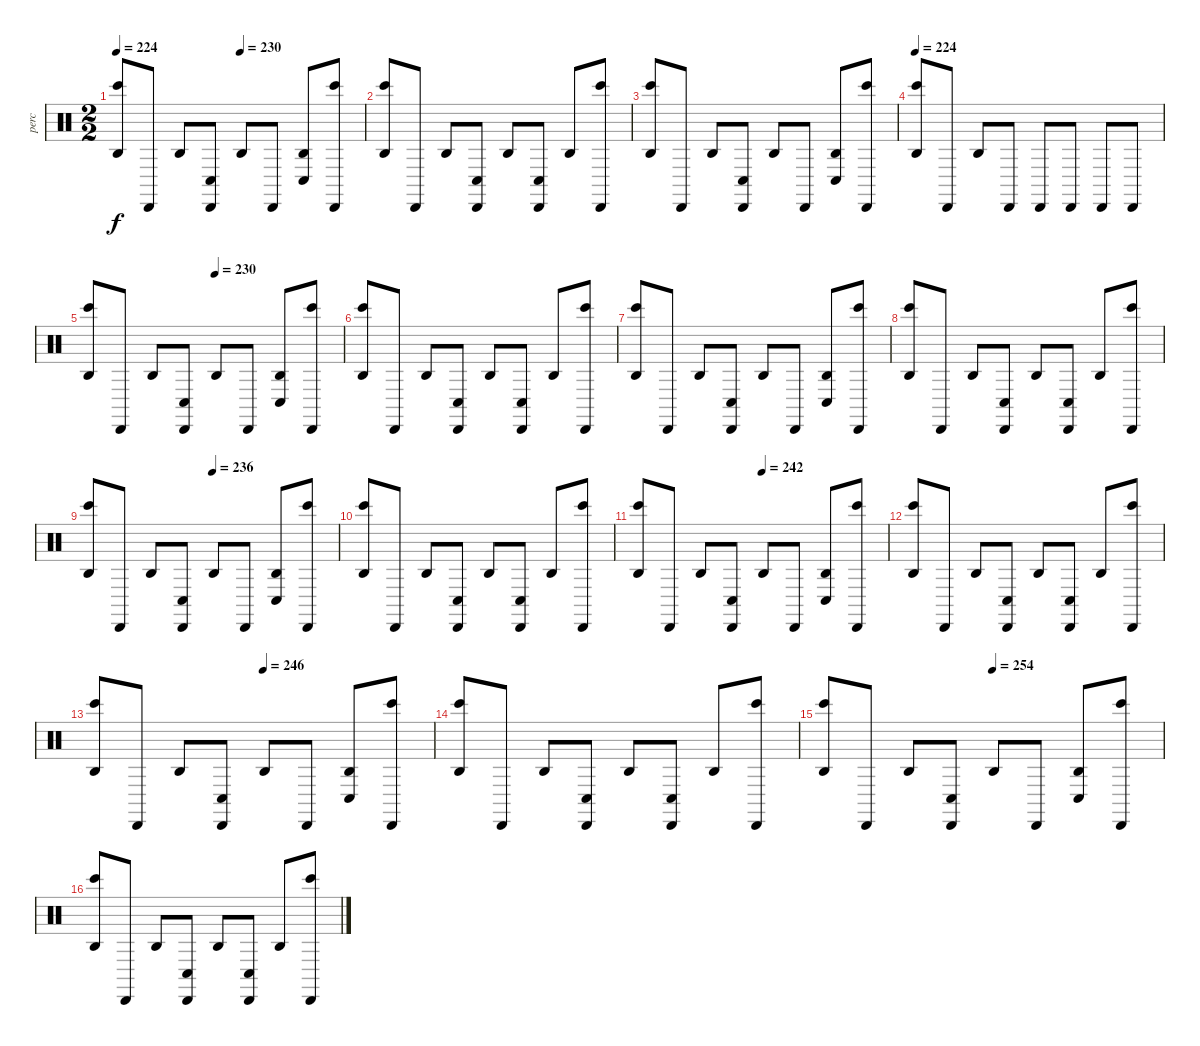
\track ("perc" "perc") {instrument percussion}
\staff {score}
\articulation defaults
\ts (2 2)
\tempo 224
\tempo (230 0.5)
\clef neutral
\ks c
("Bongo High (hit)" "Agogo high (hit)").8{dy f} "Cabasa (hit)".8 "Agogo high (hit)".8 ("Conga low (hit)" "Cabasa (hit)").8 "Agogo high (hit)".8 "Cabasa (hit)".8 ("Conga low (hit)" "Agogo high (hit)").8 ("Bongo High (hit)" "Cabasa (hit)").8 |
("Bongo High (hit)" "Agogo high (hit)").8 "Cabasa (hit)".8 "Agogo high (hit)".8 ("Conga low (hit)" "Cabasa (hit)").8 "Agogo high (hit)".8 ("Conga low (hit)" "Cabasa (hit)").8 "Agogo high (hit)".8 ("Bongo High (hit)" "Cabasa (hit)").8 |
("Bongo High (hit)" "Agogo high (hit)").8 "Cabasa (hit)".8 "Agogo high (hit)".8 ("Conga low (hit)" "Cabasa (hit)").8 "Agogo high (hit)".8 "Cabasa (hit)".8 ("Conga low (hit)" "Agogo high (hit)").8 ("Bongo High (hit)" "Cabasa (hit)").8 |
\tempo 224
("Bongo High (hit)" "Agogo high (hit)").8 "Cabasa (hit)".8 "Agogo high (hit)".8 "Cabasa (hit)".8 "Cabasa (hit)".8 "Cabasa (hit)".8 "Cabasa (hit)".8 "Cabasa (hit)".8 |
\tempo (230 0.5)
("Bongo High (hit)" "Agogo high (hit)").8 "Cabasa (hit)".8 "Agogo high (hit)".8 ("Conga low (hit)" "Cabasa (hit)").8 "Agogo high (hit)".8 "Cabasa (hit)".8 ("Conga low (hit)" "Agogo high (hit)").8 ("Bongo High (hit)" "Cabasa (hit)").8 |
("Bongo High (hit)" "Agogo high (hit)").8 "Cabasa (hit)".8 "Agogo high (hit)".8 ("Conga low (hit)" "Cabasa (hit)").8 "Agogo high (hit)".8 ("Conga low (hit)" "Cabasa (hit)").8 "Agogo high (hit)".8 ("Bongo High (hit)" "Cabasa (hit)").8 |
("Bongo High (hit)" "Agogo high (hit)").8 "Cabasa (hit)".8 "Agogo high (hit)".8 ("Conga low (hit)" "Cabasa (hit)").8 "Agogo high (hit)".8 "Cabasa (hit)".8 ("Conga low (hit)" "Agogo high (hit)").8 ("Bongo High (hit)" "Cabasa (hit)").8 |
("Bongo High (hit)" "Agogo high (hit)").8 "Cabasa (hit)".8 "Agogo high (hit)".8 ("Conga low (hit)" "Cabasa (hit)").8 "Agogo high (hit)".8 ("Conga low (hit)" "Cabasa (hit)").8 "Agogo high (hit)".8 ("Bongo High (hit)" "Cabasa (hit)").8 |
\tempo (236 0.5)
("Bongo High (hit)" "Agogo high (hit)").8 "Cabasa (hit)".8 "Agogo high (hit)".8 ("Conga low (hit)" "Cabasa (hit)").8 "Agogo high (hit)".8 "Cabasa (hit)".8 ("Conga low (hit)" "Agogo high (hit)").8 ("Bongo High (hit)" "Cabasa (hit)").8 |
("Bongo High (hit)" "Agogo high (hit)").8 "Cabasa (hit)".8 "Agogo high (hit)".8 ("Conga low (hit)" "Cabasa (hit)").8 "Agogo high (hit)".8 ("Conga low (hit)" "Cabasa (hit)").8 "Agogo high (hit)".8 ("Bongo High (hit)" "Cabasa (hit)").8 |
\tempo (242 0.5)
("Bongo High (hit)" "Agogo high (hit)").8 "Cabasa (hit)".8 "Agogo high (hit)".8 ("Conga low (hit)" "Cabasa (hit)").8 "Agogo high (hit)".8 "Cabasa (hit)".8 ("Conga low (hit)" "Agogo high (hit)").8 ("Bongo High (hit)" "Cabasa (hit)").8 |
("Bongo High (hit)" "Agogo high (hit)").8 "Cabasa (hit)".8 "Agogo high (hit)".8 ("Conga low (hit)" "Cabasa (hit)").8 "Agogo high (hit)".8 ("Conga low (hit)" "Cabasa (hit)").8 "Agogo high (hit)".8 ("Bongo High (hit)" "Cabasa (hit)").8 |
\tempo (246 0.5)
("Bongo High (hit)" "Agogo high (hit)").8 "Cabasa (hit)".8 "Agogo high (hit)".8 ("Conga low (hit)" "Cabasa (hit)").8 "Agogo high (hit)".8 "Cabasa (hit)".8 ("Conga low (hit)" "Agogo high (hit)").8 ("Bongo High (hit)" "Cabasa (hit)").8 |
("Bongo High (hit)" "Agogo high (hit)").8 "Cabasa (hit)".8 "Agogo high (hit)".8 ("Conga low (hit)" "Cabasa (hit)").8 "Agogo high (hit)".8 ("Conga low (hit)" "Cabasa (hit)").8 "Agogo high (hit)".8 ("Bongo High (hit)" "Cabasa (hit)").8 |
\tempo (254 0.5)
("Bongo High (hit)" "Agogo high (hit)").8 "Cabasa (hit)".8 "Agogo high (hit)".8 ("Conga low (hit)" "Cabasa (hit)").8 "Agogo high (hit)".8 "Cabasa (hit)".8 ("Conga low (hit)" "Agogo high (hit)").8 ("Bongo High (hit)" "Cabasa (hit)").8 |
("Bongo High (hit)" "Agogo high (hit)").8 "Cabasa (hit)".8 "Agogo high (hit)".8 ("Conga low (hit)" "Cabasa (hit)").8 "Agogo high (hit)".8 ("Conga low (hit)" "Cabasa (hit)").8 "Agogo high (hit)".8 ("Bongo High (hit)" "Cabasa (hit)").8
